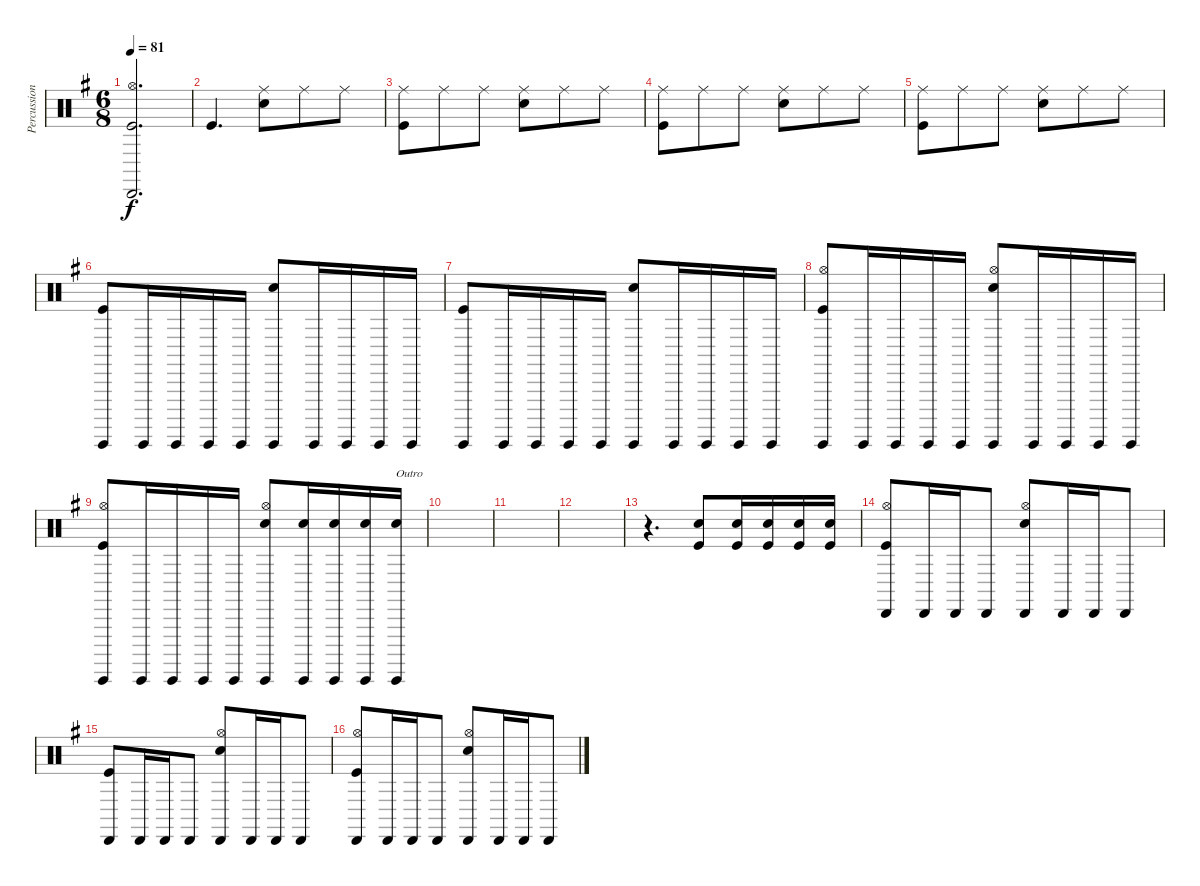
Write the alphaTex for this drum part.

\track ("Percussion" "Percussion") {instrument percussion}
\staff {score}
\articulation defaults
\ts (6 8)
\tempo 81
\clef neutral
\ks g
("Cabasa (hit)" "Hi-Hat (open)" "Kick (hit)").2{d dy f} |
"Kick (hit)".4{d} ("Ride (middle)" "Snare (hit) 2").8 "Ride (middle)".8 "Ride (middle)".8 |
("Ride (middle)" "Kick (hit)").8 "Ride (middle)".8 "Ride (middle)".8 ("Ride (middle)" "Snare (hit) 2").8 "Ride (middle)".8 "Ride (middle)".8 |
("Ride (middle)" "Kick (hit)").8 "Ride (middle)".8 "Ride (middle)".8 ("Ride (middle)" "Snare (hit) 2").8 "Ride (middle)".8 "Ride (middle)".8 |
("Ride (middle)" "Kick (hit)").8 "Ride (middle)".8 "Ride (middle)".8 ("Ride (middle)" "Snare (hit) 2").8 "Ride (middle)".8 "Ride (middle)".8 |
("Guiro (hit)" "Kick (hit)").8 "Guiro (hit)".16 "Guiro (hit)".16 "Guiro (hit)".16 "Guiro (hit)".16 ("Guiro (hit)" "Snare (hit) 2").8 "Guiro (hit)".16 "Guiro (hit)".16 "Guiro (hit)".16 "Guiro (hit)".16 |
("Guiro (hit)" "Kick (hit)").8 "Guiro (hit)".16 "Guiro (hit)".16 "Guiro (hit)".16 "Guiro (hit)".16 ("Guiro (hit)" "Snare (hit) 2").8 "Guiro (hit)".16 "Guiro (hit)".16 "Guiro (hit)".16 "Guiro (hit)".16 |
("Guiro (hit)" "Hi-Hat (open)" "Kick (hit)").8 "Guiro (hit)".16 "Guiro (hit)".16 "Guiro (hit)".16 "Guiro (hit)".16 ("Guiro (hit)" "Hi-Hat (open)" "Snare (hit) 2").8 "Guiro (hit)".16 "Guiro (hit)".16 "Guiro (hit)".16 "Guiro (hit)".16 |
("Guiro (hit)" "Hi-Hat (open)" "Kick (hit)").8 "Guiro (hit)".16 "Guiro (hit)".16 "Guiro (hit)".16 "Guiro (hit)".16 ("Guiro (hit)" "Hi-Hat (open)" "Snare (hit) 2").8 ("Guiro (hit)" "Snare (hit) 2").16 ("Guiro (hit)" "Snare (hit) 2").16 ("Guiro (hit)" "Snare (hit) 2").16 ("Guiro (hit)" "Snare (hit) 2").16{txt "Outro"} |
|
|
|
r.4{d} ("Kick (hit)" "Snare (hit) 2").8 ("Kick (hit)" "Snare (hit) 2").16 ("Kick (hit)" "Snare (hit) 2").16 ("Kick (hit)" "Snare (hit) 2").16 ("Kick (hit)" "Snare (hit) 2").16 |
("Cabasa (hit)" "Hi-Hat (open)" "Kick (hit)").8 "Cabasa (hit)".16 "Cabasa (hit)".16 "Cabasa (hit)".8 ("Cabasa (hit)" "Hi-Hat (open)" "Snare (hit) 2").8 "Cabasa (hit)".16 "Cabasa (hit)".16 "Cabasa (hit)".8 |
("Cabasa (hit)" "Kick (hit)").8 "Cabasa (hit)".16 "Cabasa (hit)".16 "Cabasa (hit)".8 ("Cabasa (hit)" "Hi-Hat (open)" "Snare (hit) 2").8 "Cabasa (hit)".16 "Cabasa (hit)".16 "Cabasa (hit)".8 |
("Cabasa (hit)" "Hi-Hat (open)" "Kick (hit)").8 "Cabasa (hit)".16 "Cabasa (hit)".16 "Cabasa (hit)".8 ("Cabasa (hit)" "Hi-Hat (open)" "Snare (hit) 2").8 "Cabasa (hit)".16 "Cabasa (hit)".16 "Cabasa (hit)".8
